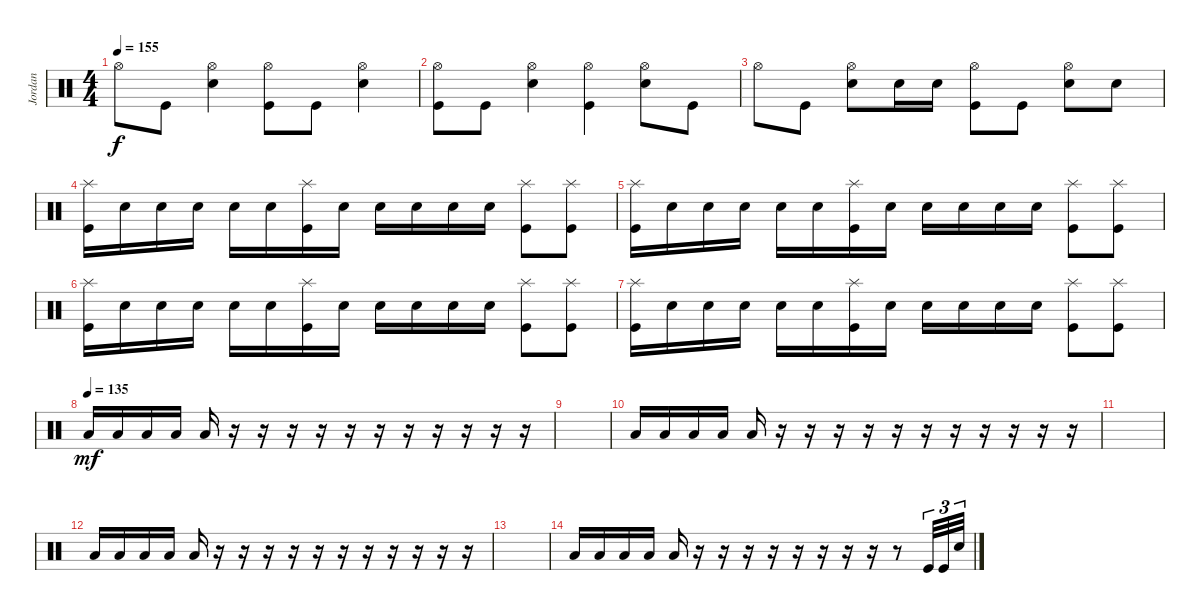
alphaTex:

\track ("Jordan" "Jordan") {instrument percussion}
\staff {score}
\articulation defaults
\ts (4 4)
\tempo 155
\clef neutral
\ks c "Hi-Hat (open)".8{dy f} "Kick (hit)".8
("Hi-Hat (open)" "Snare (hit) 2").4 ("Hi-Hat (open)" "Kick (hit)").8 "Kick (hit)".8 ("Hi-Hat (open)" "Snare (hit) 2").4 |
("Hi-Hat (open)" "Kick (hit)").8 "Kick (hit)".8 ("Hi-Hat (open)" "Snare (hit) 2").4 ("Hi-Hat (open)" "Kick (hit)").4 ("Hi-Hat (open)" "Snare (hit) 2").8 "Kick (hit)".8 |
"Hi-Hat (open)".8 "Kick (hit)".8 ("Snare (hit) 2" "Hi-Hat (open)").8 "Snare (hit) 2".16 "Snare (hit) 2".16 ("Kick (hit)" "Hi-Hat (open)").8 "Kick (hit)".8 ("Snare (hit) 2" "Hi-Hat (open)").8 "Snare (hit) 2".8 |
("Kick (hit)" "Splash (hit)").16 "Snare (hit) 2".16 "Snare (hit) 2".16 "Snare (hit) 2".16 "Snare (hit) 2".16 "Snare (hit) 2".16 ("Kick (hit)" "Splash (hit)").16 "Snare (hit) 2".16 "Snare (hit) 2".16 "Snare (hit) 2".16 "Snare (hit) 2".16 "Snare (hit) 2".16 ("Kick (hit)" "Splash (hit)").8 ("Kick (hit)" "Splash (hit)").8 |
("Kick (hit)" "Splash (hit)").16 "Snare (hit) 2".16 "Snare (hit) 2".16 "Snare (hit) 2".16 "Snare (hit) 2".16 "Snare (hit) 2".16 ("Kick (hit)" "Splash (hit)").16 "Snare (hit) 2".16 "Snare (hit) 2".16 "Snare (hit) 2".16 "Snare (hit) 2".16 "Snare (hit) 2".16 ("Kick (hit)" "Splash (hit)").8 ("Kick (hit)" "Splash (hit)").8 |
("Kick (hit)" "Splash (hit)").16 "Snare (hit) 2".16 "Snare (hit) 2".16 "Snare (hit) 2".16 "Snare (hit) 2".16 "Snare (hit) 2".16 ("Kick (hit)" "Splash (hit)").16 "Snare (hit) 2".16 "Snare (hit) 2".16 "Snare (hit) 2".16 "Snare (hit) 2".16 "Snare (hit) 2".16 ("Kick (hit)" "Splash (hit)").8 ("Kick (hit)" "Splash (hit)").8 |
("Kick (hit)" "Splash (hit)").16 "Snare (hit) 2".16 "Snare (hit) 2".16 "Snare (hit) 2".16 "Snare (hit) 2".16 "Snare (hit) 2".16 ("Kick (hit)" "Splash (hit)").16 "Snare (hit) 2".16 "Snare (hit) 2".16 "Snare (hit) 2".16 "Snare (hit) 2".16 "Snare (hit) 2".16 ("Kick (hit)" "Splash (hit)").8 ("Kick (hit)" "Splash (hit)").8 |
\tempo (135)
"Low Floor Tom (hit)".16{dy mf} "Low Floor Tom (hit)".16 "Low Floor Tom (hit)".16 "Low Floor Tom (hit)".16 "Low Floor Tom (hit)".16 r.16 r.16 r.16 r.16 r.16 r.16 r.16 r.16 r.16 r.16 r.16 |
|
"Low Floor Tom (hit)".16 "Low Floor Tom (hit)".16 "Low Floor Tom (hit)".16 "Low Floor Tom (hit)".16 "Low Floor Tom (hit)".16 r.16 r.16 r.16 r.16 r.16 r.16 r.16 r.16 r.16 r.16 r.16 |
|
"Low Floor Tom (hit)".16 "Low Floor Tom (hit)".16 "Low Floor Tom (hit)".16 "Low Floor Tom (hit)".16 "Low Floor Tom (hit)".16 r.16 r.16 r.16 r.16 r.16 r.16 r.16 r.16 r.16 r.16 r.16 |
|
"Low Floor Tom (hit)".16 "Low Floor Tom (hit)".16 "Low Floor Tom (hit)".16 "Low Floor Tom (hit)".16 "Low Floor Tom (hit)".16 r.16 r.16 r.16 r.16 r.16 r.16 r.16 r.16 r.8 "Kick (hit)".32{tu (3 2)} "Kick (hit)".32{tu (3 2)} "Snare (hit) 2".32{tu (3 2)}
